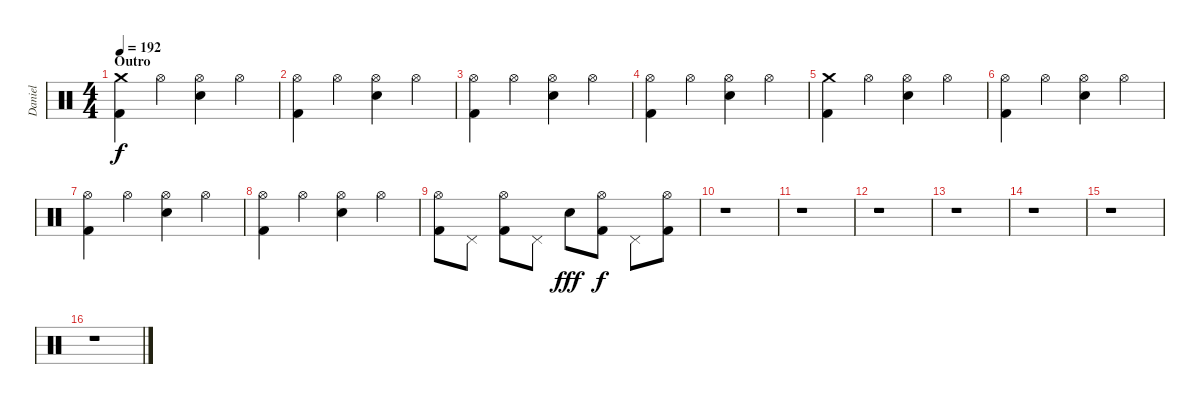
\track ("Daniel" "Daniel") {instrument percussion}
\staff {score}
\articulation defaults
\ts (4 4)
\section ("" "Outro")
\tempo 192
\clef neutral
\ks c
("Kick (hit) 2" "Crash medium (hit)").4{dy f} "Hi-Hat (open)".4 ("Electric Snare (hit)" "Hi-Hat (open)").4 "Hi-Hat (open)".4 |
("Kick (hit) 2" "Hi-Hat (open)").4 "Hi-Hat (open)".4 ("Electric Snare (hit)" "Hi-Hat (open)").4 "Hi-Hat (open)".4 |
("Kick (hit) 2" "Hi-Hat (open)").4 "Hi-Hat (open)".4 ("Electric Snare (hit)" "Hi-Hat (open)").4 "Hi-Hat (open)".4 |
("Kick (hit) 2" "Hi-Hat (open)").4 "Hi-Hat (open)".4 ("Electric Snare (hit)" "Hi-Hat (open)").4 "Hi-Hat (open)".4 |
("Kick (hit) 2" "Crash medium (hit)").4 "Hi-Hat (open)".4 ("Electric Snare (hit)" "Hi-Hat (open)").4 "Hi-Hat (open)".4 |
("Kick (hit) 2" "Hi-Hat (open)").4 "Hi-Hat (open)".4 ("Electric Snare (hit)" "Hi-Hat (open)").4 "Hi-Hat (open)".4 |
("Kick (hit) 2" "Hi-Hat (open)").4 "Hi-Hat (open)".4 ("Electric Snare (hit)" "Hi-Hat (open)").4 "Hi-Hat (open)".4 |
("Kick (hit) 2" "Hi-Hat (open)").4 "Hi-Hat (open)".4 ("Electric Snare (hit)" "Hi-Hat (open)").4 "Hi-Hat (open)".4 |
("Kick (hit) 2" "Hi-Hat (open)").8 "Pedal Hi-Hat (hit)".8 ("Kick (hit) 2" "Hi-Hat (open)").8 "Pedal Hi-Hat (hit)".8 "Electric Snare (hit)".8{dy fff} ("Kick (hit) 2" "Hi-Hat (open)").8{dy f} "Pedal Hi-Hat (hit)".8 ("Kick (hit) 2" "Hi-Hat (open)").8 |
r.1 |
r.1 |
r.1 |
r.1 |
r.1 |
r.1 |
r.1
